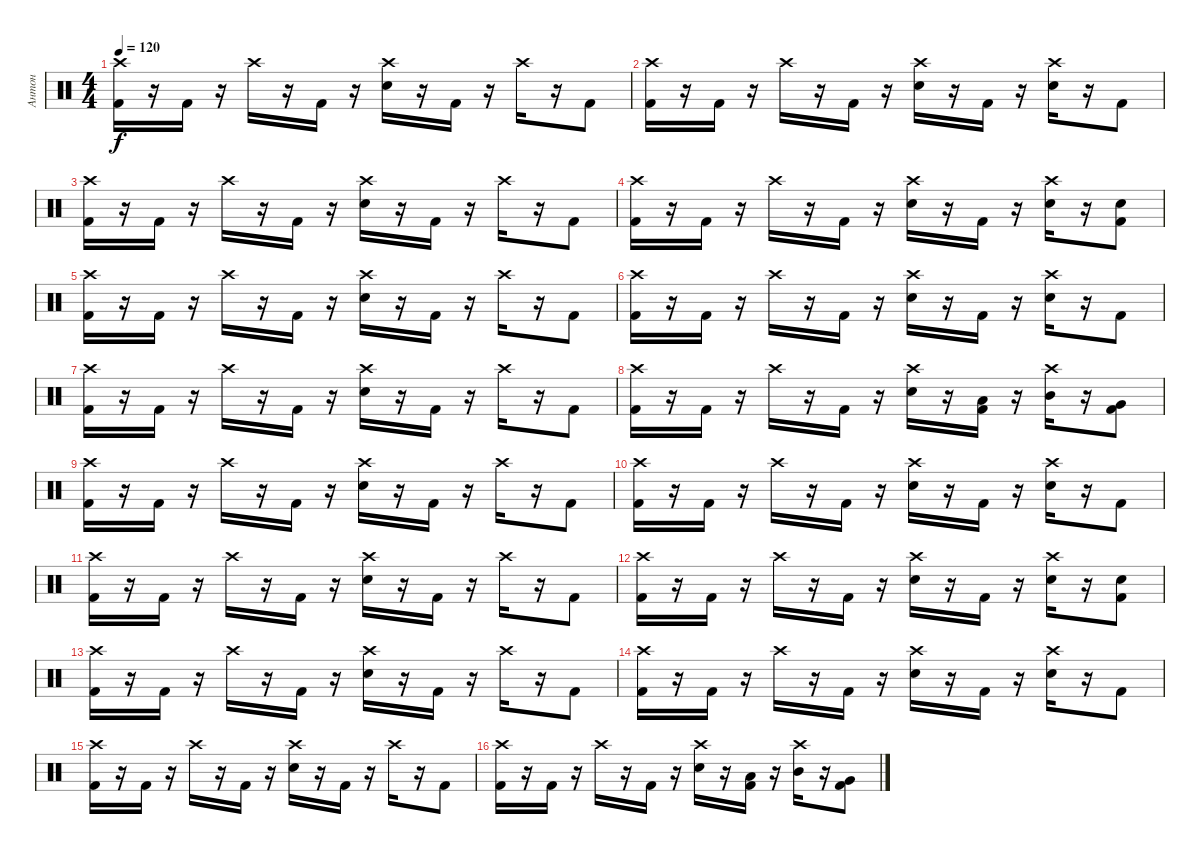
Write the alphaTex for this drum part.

\track ("Антон" "Антон") {instrument percussion}
\staff {score}
\articulation defaults
\ts (4 4)
\tempo 120
\clef neutral
\ks c
("Crash high (hit)" "Kick (hit) 2").16{dy f} r.16 "Kick (hit) 2".16 r.16 "Crash high (hit)".16 r.16 "Kick (hit) 2".16 r.16 ("Crash high (hit)" "Electric Snare (hit)").16 r.16 "Kick (hit) 2".16 r.16 "Crash high (hit)".16 r.16 "Kick (hit) 2".8 |
("Crash high (hit)" "Kick (hit) 2").16 r.16 "Kick (hit) 2".16 r.16 "Crash high (hit)".16 r.16 "Kick (hit) 2".16 r.16 ("Crash high (hit)" "Electric Snare (hit)").16 r.16 "Kick (hit) 2".16 r.16 ("Crash high (hit)" "Electric Snare (hit)").16 r.16 "Kick (hit) 2".8 |
("Crash high (hit)" "Kick (hit) 2").16 r.16 "Kick (hit) 2".16 r.16 "Crash high (hit)".16 r.16 "Kick (hit) 2".16 r.16 ("Crash high (hit)" "Electric Snare (hit)").16 r.16 "Kick (hit) 2".16 r.16 "Crash high (hit)".16 r.16 "Kick (hit) 2".8 |
("Crash high (hit)" "Kick (hit) 2").16 r.16 "Kick (hit) 2".16 r.16 "Crash high (hit)".16 r.16 "Kick (hit) 2".16 r.16 ("Crash high (hit)" "Electric Snare (hit)").16 r.16 "Kick (hit) 2".16 r.16 ("Crash high (hit)" "Electric Snare (hit)").16 r.16 ("Electric Snare (hit)" "Kick (hit) 2").8 |
("Crash high (hit)" "Kick (hit) 2").16 r.16 "Kick (hit) 2".16 r.16 "Crash high (hit)".16 r.16 "Kick (hit) 2".16 r.16 ("Crash high (hit)" "Electric Snare (hit)").16 r.16 "Kick (hit) 2".16 r.16 "Crash high (hit)".16 r.16 "Kick (hit) 2".8 |
("Crash high (hit)" "Kick (hit) 2").16 r.16 "Kick (hit) 2".16 r.16 "Crash high (hit)".16 r.16 "Kick (hit) 2".16 r.16 ("Crash high (hit)" "Electric Snare (hit)").16 r.16 "Kick (hit) 2".16 r.16 ("Crash high (hit)" "Electric Snare (hit)").16 r.16 "Kick (hit) 2".8 |
("Crash high (hit)" "Kick (hit) 2").16 r.16 "Kick (hit) 2".16 r.16 "Crash high (hit)".16 r.16 "Kick (hit) 2".16 r.16 ("Crash high (hit)" "Electric Snare (hit)").16 r.16 "Kick (hit) 2".16 r.16 "Crash high (hit)".16 r.16 "Kick (hit) 2".8 |
("Crash high (hit)" "Kick (hit) 2").16 r.16 "Kick (hit) 2".16 r.16 "Crash high (hit)".16 r.16 "Kick (hit) 2".16 r.16 ("Crash high (hit)" "Electric Snare (hit)").16 r.16 ("Low Tom (hit)" "Kick (hit) 2").16 r.16 ("Crash high (hit)" "Mid Tom (hit)").16 r.16 ("Very Low Tom (hit)" "Kick (hit) 2").8 |
("Crash high (hit)" "Kick (hit) 2").16 r.16 "Kick (hit) 2".16 r.16 "Crash high (hit)".16 r.16 "Kick (hit) 2".16 r.16 ("Crash high (hit)" "Electric Snare (hit)").16 r.16 "Kick (hit) 2".16 r.16 "Crash high (hit)".16 r.16 "Kick (hit) 2".8 |
("Crash high (hit)" "Kick (hit) 2").16 r.16 "Kick (hit) 2".16 r.16 "Crash high (hit)".16 r.16 "Kick (hit) 2".16 r.16 ("Crash high (hit)" "Electric Snare (hit)").16 r.16 "Kick (hit) 2".16 r.16 ("Crash high (hit)" "Electric Snare (hit)").16 r.16 "Kick (hit) 2".8 |
("Crash high (hit)" "Kick (hit) 2").16 r.16 "Kick (hit) 2".16 r.16 "Crash high (hit)".16 r.16 "Kick (hit) 2".16 r.16 ("Crash high (hit)" "Electric Snare (hit)").16 r.16 "Kick (hit) 2".16 r.16 "Crash high (hit)".16 r.16 "Kick (hit) 2".8 |
("Crash high (hit)" "Kick (hit) 2").16 r.16 "Kick (hit) 2".16 r.16 "Crash high (hit)".16 r.16 "Kick (hit) 2".16 r.16 ("Crash high (hit)" "Electric Snare (hit)").16 r.16 "Kick (hit) 2".16 r.16 ("Crash high (hit)" "Electric Snare (hit)").16 r.16 ("Electric Snare (hit)" "Kick (hit) 2").8 |
("Crash high (hit)" "Kick (hit) 2").16 r.16 "Kick (hit) 2".16 r.16 "Crash high (hit)".16 r.16 "Kick (hit) 2".16 r.16 ("Crash high (hit)" "Electric Snare (hit)").16 r.16 "Kick (hit) 2".16 r.16 "Crash high (hit)".16 r.16 "Kick (hit) 2".8 |
("Crash high (hit)" "Kick (hit) 2").16 r.16 "Kick (hit) 2".16 r.16 "Crash high (hit)".16 r.16 "Kick (hit) 2".16 r.16 ("Crash high (hit)" "Electric Snare (hit)").16 r.16 "Kick (hit) 2".16 r.16 ("Crash high (hit)" "Electric Snare (hit)").16 r.16 "Kick (hit) 2".8 |
("Crash high (hit)" "Kick (hit) 2").16 r.16 "Kick (hit) 2".16 r.16 "Crash high (hit)".16 r.16 "Kick (hit) 2".16 r.16 ("Crash high (hit)" "Electric Snare (hit)").16 r.16 "Kick (hit) 2".16 r.16 "Crash high (hit)".16 r.16 "Kick (hit) 2".8 |
("Crash high (hit)" "Kick (hit) 2").16 r.16 "Kick (hit) 2".16 r.16 "Crash high (hit)".16 r.16 "Kick (hit) 2".16 r.16 ("Crash high (hit)" "Electric Snare (hit)").16 r.16 ("Low Tom (hit)" "Kick (hit) 2").16 r.16 ("Crash high (hit)" "Mid Tom (hit)").16 r.16 ("Very Low Tom (hit)" "Kick (hit) 2").8
